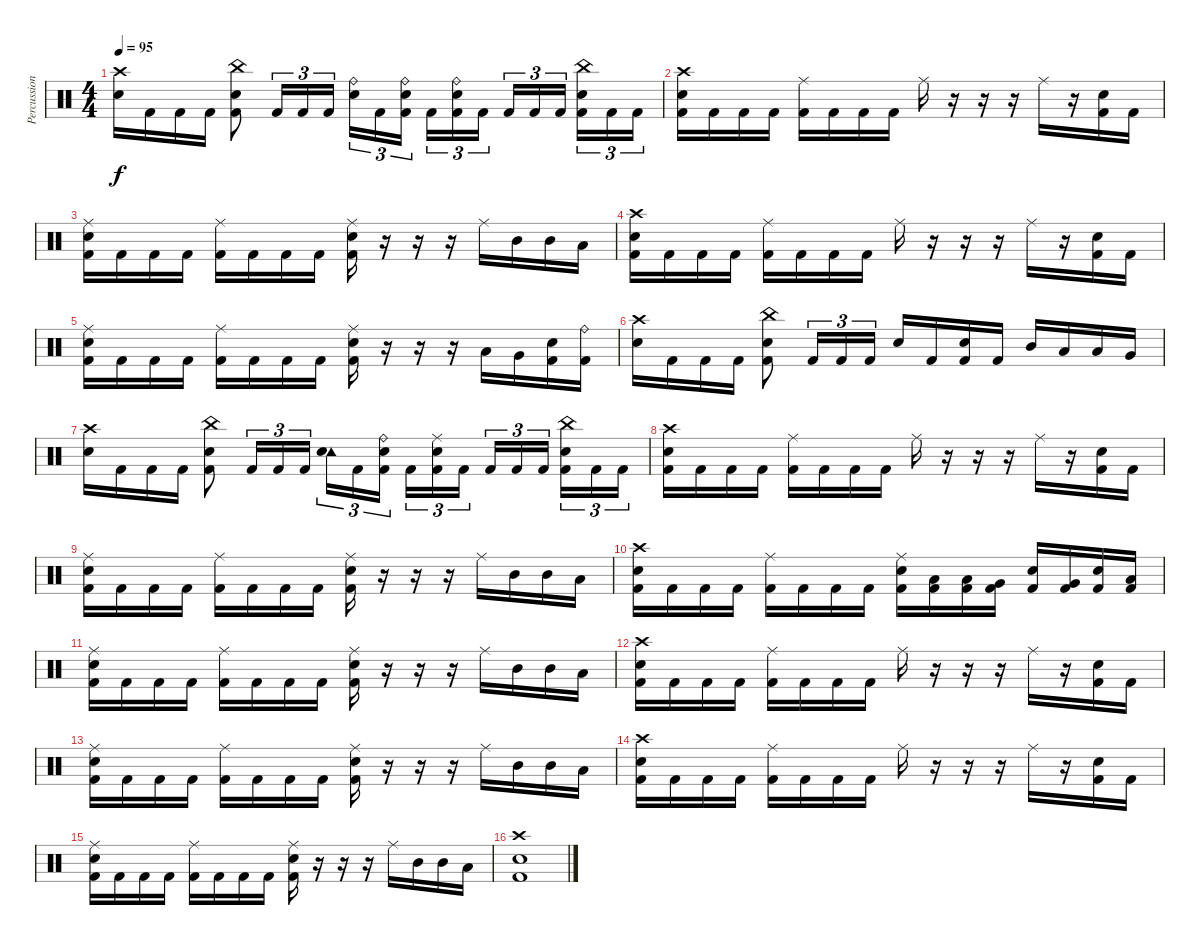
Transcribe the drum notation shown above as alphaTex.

\track ("Percussion" "Percussion") {instrument percussion}
\staff {score}
\articulation defaults
\ts (4 4)
\tempo 95
\clef neutral
\ks c
("Crash high (hit)" "Electric Snare (hit)").16{dy f} "Kick (hit) 2".16 "Kick (hit) 2".16 "Kick (hit) 2".16 ("China (hit)" "Electric Snare (hit)" "Kick (hit) 2").8 "Kick (hit) 2".16{tu (3 2)} "Kick (hit) 2".16{tu (3 2)} "Kick (hit) 2".16{tu (3 2)} ("Ride (bell)" "Electric Snare (hit)").16{tu (3 2)} "Kick (hit) 2".16{tu (3 2)} ("Ride (bell)" "Electric Snare (hit)" "Kick (hit) 2").16{tu (3 2)} "Kick (hit) 2".16{tu (3 2)} ("Ride (bell)" "Electric Snare (hit)" "Kick (hit) 2").16{tu (3 2)} "Kick (hit) 2".16{tu (3 2)} "Kick (hit) 2".16{tu (3 2)} "Kick (hit) 2".16{tu (3 2)} "Kick (hit) 2".16{tu (3 2)} ("China (hit)" "Electric Snare (hit)" "Kick (hit) 2").16{tu (3 2)} "Kick (hit) 2".16{tu (3 2)} "Kick (hit) 2".16{tu (3 2)} |
("Crash high (hit)" "Electric Snare (hit)" "Kick (hit) 2").16 "Kick (hit) 2".16 "Kick (hit) 2".16 "Kick (hit) 2".16 ("Ride (middle)" "Kick (hit) 2").16 "Kick (hit) 2".16 "Kick (hit) 2".16 "Kick (hit) 2".16 "Ride (middle)".16 r.16 r.16 r.16 "Ride (middle)".16 r.16 ("Electric Snare (hit)" "Kick (hit) 2").16 "Kick (hit) 2".16 |
("Ride (middle)" "Electric Snare (hit)" "Kick (hit) 2").16 "Kick (hit) 2".16 "Kick (hit) 2".16 "Kick (hit) 2".16 ("Ride (middle)" "Kick (hit) 2").16 "Kick (hit) 2".16 "Kick (hit) 2".16 "Kick (hit) 2".16 ("Ride (middle)" "Electric Snare (hit)" "Kick (hit) 2").16 r.16 r.16 r.16 "Ride (middle)".16 "Mid Tom (hit)".16 "Mid Tom (hit)".16 "Low Tom (hit)".16 |
("Crash high (hit)" "Electric Snare (hit)" "Kick (hit) 2").16 "Kick (hit) 2".16 "Kick (hit) 2".16 "Kick (hit) 2".16 ("Ride (middle)" "Kick (hit) 2").16 "Kick (hit) 2".16 "Kick (hit) 2".16 "Kick (hit) 2".16 "Ride (middle)".16 r.16 r.16 r.16 "Ride (middle)".16 r.16 ("Electric Snare (hit)" "Kick (hit) 2").16 "Kick (hit) 2".16 |
("Ride (middle)" "Electric Snare (hit)" "Kick (hit) 2").16 "Kick (hit) 2".16 "Kick (hit) 2".16 "Kick (hit) 2".16 ("Ride (middle)" "Kick (hit) 2").16 "Kick (hit) 2".16 "Kick (hit) 2".16 "Kick (hit) 2".16 ("Ride (middle)" "Electric Snare (hit)" "Kick (hit) 2").16 r.16 r.16 r.16 "Low Tom (hit)".16 "Very Low Tom (hit)".16 ("Electric Snare (hit)" "Kick (hit) 2").16 ("Ride (bell)" "Kick (hit) 2").16 |
("Crash high (hit)" "Electric Snare (hit)").16 "Kick (hit) 2".16 "Kick (hit) 2".16 "Kick (hit) 2".16 ("China (hit)" "Electric Snare (hit)" "Kick (hit) 2").8 "Kick (hit) 2".16{tu (3 2)} "Kick (hit) 2".16{tu (3 2)} "Kick (hit) 2".16{tu (3 2)} "Electric Snare (hit)".16 "Kick (hit) 2".16 ("Electric Snare (hit)" "Kick (hit) 2").16 "Kick (hit) 2".16 "Mid Tom (hit)".16 "Low Tom (hit)".16 "Low Tom (hit)".16 "Very Low Tom (hit)".16 |
("Crash high (hit)" "Electric Snare (hit)").16 "Kick (hit) 2".16 "Kick (hit) 2".16 "Kick (hit) 2".16 ("China (hit)" "Electric Snare (hit)" "Kick (hit) 2").8 "Kick (hit) 2".16{tu (3 2)} "Kick (hit) 2".16{tu (3 2)} "Kick (hit) 2".16{tu (3 2)} ("Tambourine (hit)" "Electric Snare (hit)").16{tu (3 2)} "Kick (hit) 2".16{tu (3 2)} ("Ride (bell)" "Electric Snare (hit)" "Kick (hit) 2").16{tu (3 2)} "Kick (hit) 2".16{tu (3 2)} ("Ride (middle)" "Electric Snare (hit)" "Kick (hit) 2").16{tu (3 2)} "Kick (hit) 2".16{tu (3 2)} "Kick (hit) 2".16{tu (3 2)} "Kick (hit) 2".16{tu (3 2)} "Kick (hit) 2".16{tu (3 2)} ("China (hit)" "Electric Snare (hit)" "Kick (hit) 2").16{tu (3 2)} "Kick (hit) 2".16{tu (3 2)} "Kick (hit) 2".16{tu (3 2)} |
("Crash high (hit)" "Electric Snare (hit)" "Kick (hit) 2").16 "Kick (hit) 2".16 "Kick (hit) 2".16 "Kick (hit) 2".16 ("Ride (middle)" "Kick (hit) 2").16 "Kick (hit) 2".16 "Kick (hit) 2".16 "Kick (hit) 2".16 "Ride (middle)".16 r.16 r.16 r.16 "Ride (middle)".16 r.16 ("Electric Snare (hit)" "Kick (hit) 2").16 "Kick (hit) 2".16 |
("Ride (middle)" "Electric Snare (hit)" "Kick (hit) 2").16 "Kick (hit) 2".16 "Kick (hit) 2".16 "Kick (hit) 2".16 ("Ride (middle)" "Kick (hit) 2").16 "Kick (hit) 2".16 "Kick (hit) 2".16 "Kick (hit) 2".16 ("Ride (middle)" "Electric Snare (hit)" "Kick (hit) 2").16 r.16 r.16 r.16 "Ride (middle)".16 "Mid Tom (hit)".16 "Mid Tom (hit)".16 "Low Tom (hit)".16 |
("Crash high (hit)" "Electric Snare (hit)" "Kick (hit) 2").16 "Kick (hit) 2".16 "Kick (hit) 2".16 "Kick (hit) 2".16 ("Ride (middle)" "Kick (hit) 2").16 "Kick (hit) 2".16 "Kick (hit) 2".16 "Kick (hit) 2".16 ("Ride (middle)" "Electric Snare (hit)" "Kick (hit) 2").16 ("Low Tom (hit)" "Kick (hit) 2").16 ("Low Tom (hit)" "Kick (hit) 2").16 ("Very Low Tom (hit)" "Kick (hit) 2").16 ("Electric Snare (hit)" "Kick (hit) 2").16 ("Very Low Tom (hit)" "Kick (hit) 2").16 ("Electric Snare (hit)" "Kick (hit) 2").16 ("Low Floor Tom (hit)" "Kick (hit) 2").16 |
("Ride (middle)" "Electric Snare (hit)" "Kick (hit) 2").16 "Kick (hit) 2".16 "Kick (hit) 2".16 "Kick (hit) 2".16 ("Ride (middle)" "Kick (hit) 2").16 "Kick (hit) 2".16 "Kick (hit) 2".16 "Kick (hit) 2".16 ("Ride (middle)" "Electric Snare (hit)" "Kick (hit) 2").16 r.16 r.16 r.16 "Ride (middle)".16 "Mid Tom (hit)".16 "Mid Tom (hit)".16 "Low Tom (hit)".16 |
("Crash high (hit)" "Electric Snare (hit)" "Kick (hit) 2").16 "Kick (hit) 2".16 "Kick (hit) 2".16 "Kick (hit) 2".16 ("Ride (middle)" "Kick (hit) 2").16 "Kick (hit) 2".16 "Kick (hit) 2".16 "Kick (hit) 2".16 "Ride (middle)".16 r.16 r.16 r.16 "Ride (middle)".16 r.16 ("Electric Snare (hit)" "Kick (hit) 2").16 "Kick (hit) 2".16 |
("Ride (middle)" "Electric Snare (hit)" "Kick (hit) 2").16 "Kick (hit) 2".16 "Kick (hit) 2".16 "Kick (hit) 2".16 ("Ride (middle)" "Kick (hit) 2").16 "Kick (hit) 2".16 "Kick (hit) 2".16 "Kick (hit) 2".16 ("Ride (middle)" "Electric Snare (hit)" "Kick (hit) 2").16 r.16 r.16 r.16 "Ride (middle)".16 "Mid Tom (hit)".16 "Mid Tom (hit)".16 "Low Tom (hit)".16 |
("Crash high (hit)" "Electric Snare (hit)" "Kick (hit) 2").16 "Kick (hit) 2".16 "Kick (hit) 2".16 "Kick (hit) 2".16 ("Ride (middle)" "Kick (hit) 2").16 "Kick (hit) 2".16 "Kick (hit) 2".16 "Kick (hit) 2".16 "Ride (middle)".16 r.16 r.16 r.16 "Ride (middle)".16 r.16 ("Electric Snare (hit)" "Kick (hit) 2").16 "Kick (hit) 2".16 |
("Ride (middle)" "Electric Snare (hit)" "Kick (hit) 2").16 "Kick (hit) 2".16 "Kick (hit) 2".16 "Kick (hit) 2".16 ("Ride (middle)" "Kick (hit) 2").16 "Kick (hit) 2".16 "Kick (hit) 2".16 "Kick (hit) 2".16 ("Ride (middle)" "Electric Snare (hit)" "Kick (hit) 2").16 r.16 r.16 r.16 "Ride (middle)".16 "Mid Tom (hit)".16 "Mid Tom (hit)".16 "Low Tom (hit)".16 |
("Crash high (hit)" "Electric Snare (hit)" "Kick (hit) 2").1
